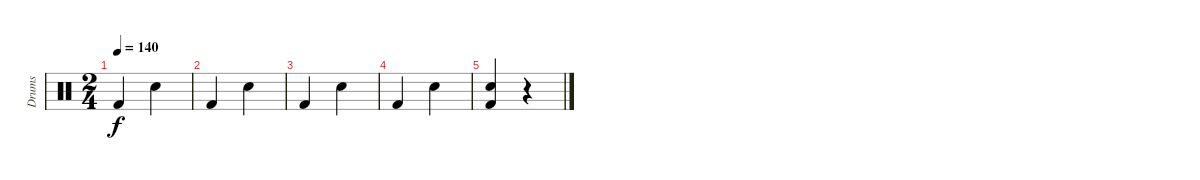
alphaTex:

\track ("Drums" "Drums") {instrument percussion}
\staff {score}
\articulation defaults
\ts (2 4)
\tempo 140
\clef neutral
\ks c "Kick (hit) 2".4{dy f} "Snare (hit) 2".4
|
"Kick (hit) 2".4 "Snare (hit) 2".4 |
"Kick (hit) 2".4 "Snare (hit) 2".4 |
"Kick (hit) 2".4 "Snare (hit) 2".4 |
("Snare (hit) 2" "Kick (hit) 2").4 r.4
